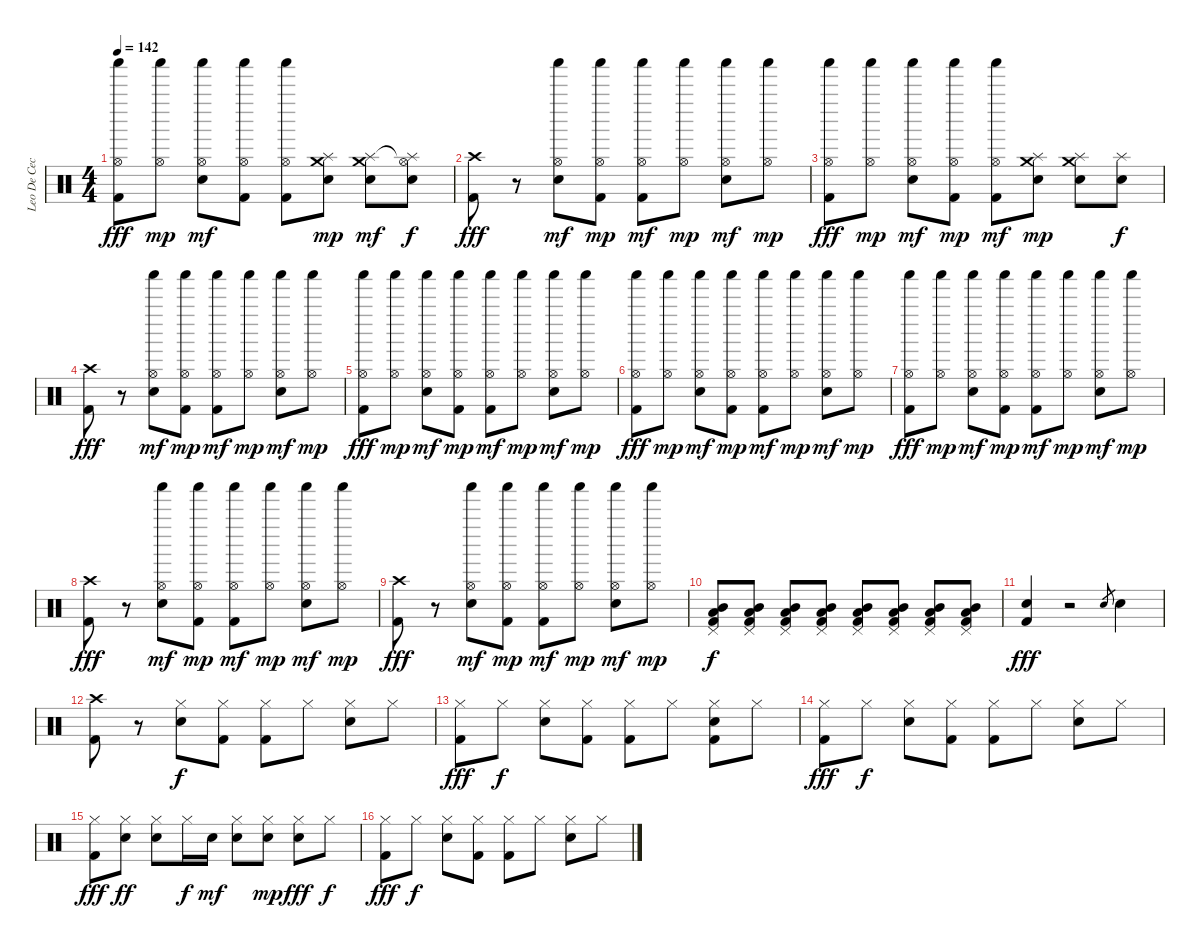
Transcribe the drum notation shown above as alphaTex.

\track ("Leo De Cecco" "Leo De Cec") {instrument percussion}
\staff {score}
\articulation defaults
\ts (4 4)
\tempo 142
\clef neutral
\ks c
("Shaker (hit)" "Hi-Hat (open)" "Kick (hit) 2").8{dy fff} ("Shaker (hit)" "Hi-Hat (open)").8{dy mp} ("Shaker (hit)" "Hi-Hat (open)" "Electric Snare (hit)").8{dy mf} ("Shaker (hit)" "Hi-Hat (open)" "Kick (hit) 2").8 ("Shaker (hit)" "Hi-Hat (open)" "Kick (hit) 2").8 ("Crash medium (hit)" "Splash (hit)" "Electric Snare (hit)").8{dy mp} ("Crash medium (hit)" "Splash (hit)" "Electric Snare (hit)").8{dy mf} ("Splash (hit)" "Hi-Hat (open)"{t} "Electric Snare (hit)").8{dy f} |
("Crash high (hit)" "Kick (hit) 2").8{dy fff} r.8 ("Shaker (hit)" "Hi-Hat (open)" "Electric Snare (hit)").8{dy mf} ("Shaker (hit)" "Hi-Hat (open)" "Kick (hit) 2").8{dy mp} ("Shaker (hit)" "Hi-Hat (open)" "Kick (hit) 2").8{dy mf} ("Shaker (hit)" "Hi-Hat (open)").8{dy mp} ("Shaker (hit)" "Hi-Hat (open)" "Electric Snare (hit)").8{dy mf} ("Shaker (hit)" "Hi-Hat (open)").8{dy mp} |
("Shaker (hit)" "Hi-Hat (open)" "Kick (hit) 2").8{dy fff} ("Shaker (hit)" "Hi-Hat (open)").8{dy mp} ("Shaker (hit)" "Hi-Hat (open)" "Electric Snare (hit)").8{dy mf} ("Shaker (hit)" "Hi-Hat (open)" "Kick (hit) 2").8{dy mp} ("Shaker (hit)" "Hi-Hat (open)" "Kick (hit) 2").8{dy mf} ("Crash medium (hit)" "Splash (hit)" "Electric Snare (hit)").8{dy mp} ("Crash medium (hit)" "Splash (hit)" "Electric Snare (hit)").8 ("Splash (hit)" "Electric Snare (hit)").8{dy f} |
("Crash high (hit)" "Kick (hit) 2").8{dy fff} r.8 ("Shaker (hit)" "Hi-Hat (open)" "Electric Snare (hit)").8{dy mf} ("Shaker (hit)" "Hi-Hat (open)" "Kick (hit) 2").8{dy mp} ("Shaker (hit)" "Hi-Hat (open)" "Kick (hit) 2").8{dy mf} ("Shaker (hit)" "Hi-Hat (open)").8{dy mp} ("Shaker (hit)" "Hi-Hat (open)" "Electric Snare (hit)").8{dy mf} ("Shaker (hit)" "Hi-Hat (open)").8{dy mp} |
("Shaker (hit)" "Hi-Hat (open)" "Kick (hit) 2").8{dy fff} ("Shaker (hit)" "Hi-Hat (open)").8{dy mp} ("Shaker (hit)" "Hi-Hat (open)" "Electric Snare (hit)").8{dy mf} ("Shaker (hit)" "Hi-Hat (open)" "Kick (hit) 2").8{dy mp} ("Shaker (hit)" "Hi-Hat (open)" "Kick (hit) 2").8{dy mf} ("Shaker (hit)" "Hi-Hat (open)").8{dy mp} ("Shaker (hit)" "Hi-Hat (open)" "Electric Snare (hit)").8{dy mf} ("Shaker (hit)" "Hi-Hat (open)").8{dy mp} |
("Shaker (hit)" "Hi-Hat (open)" "Kick (hit) 2").8{dy fff} ("Shaker (hit)" "Hi-Hat (open)").8{dy mp} ("Shaker (hit)" "Hi-Hat (open)" "Electric Snare (hit)").8{dy mf} ("Shaker (hit)" "Hi-Hat (open)" "Kick (hit) 2").8{dy mp} ("Shaker (hit)" "Hi-Hat (open)" "Kick (hit) 2").8{dy mf} ("Shaker (hit)" "Hi-Hat (open)").8{dy mp} ("Shaker (hit)" "Hi-Hat (open)" "Electric Snare (hit)").8{dy mf} ("Shaker (hit)" "Hi-Hat (open)").8{dy mp} |
("Shaker (hit)" "Hi-Hat (open)" "Kick (hit) 2").8{dy fff} ("Shaker (hit)" "Hi-Hat (open)").8{dy mp} ("Shaker (hit)" "Hi-Hat (open)" "Electric Snare (hit)").8{dy mf} ("Shaker (hit)" "Hi-Hat (open)" "Kick (hit) 2").8{dy mp} ("Shaker (hit)" "Hi-Hat (open)" "Kick (hit) 2").8{dy mf} ("Shaker (hit)" "Hi-Hat (open)").8{dy mp} ("Shaker (hit)" "Hi-Hat (open)" "Electric Snare (hit)").8{dy mf} ("Shaker (hit)" "Hi-Hat (open)").8{dy mp} |
("Crash high (hit)" "Kick (hit) 2").8{dy fff} r.8 ("Shaker (hit)" "Hi-Hat (open)" "Electric Snare (hit)").8{dy mf} ("Shaker (hit)" "Hi-Hat (open)" "Kick (hit) 2").8{dy mp} ("Shaker (hit)" "Hi-Hat (open)" "Kick (hit) 2").8{dy mf} ("Shaker (hit)" "Hi-Hat (open)").8{dy mp} ("Shaker (hit)" "Hi-Hat (open)" "Electric Snare (hit)").8{dy mf} ("Shaker (hit)" "Hi-Hat (open)").8{dy mp} |
("Crash high (hit)" "Kick (hit) 2").8{dy fff} r.8 ("Shaker (hit)" "Hi-Hat (open)" "Electric Snare (hit)").8{dy mf} ("Shaker (hit)" "Hi-Hat (open)" "Kick (hit) 2").8{dy mp} ("Shaker (hit)" "Hi-Hat (open)" "Kick (hit) 2").8{dy mf} ("Shaker (hit)" "Hi-Hat (open)").8{dy mp} ("Shaker (hit)" "Hi-Hat (open)" "Electric Snare (hit)").8{dy mf} ("Shaker (hit)" "Hi-Hat (open)").8{dy mp} |
("Low Tom (hit)" "Mid Tom (hit)" "Pedal Hi-Hat (hit)" "Kick (hit) 2").8{dy f} ("Low Tom (hit)" "Mid Tom (hit)" "Pedal Hi-Hat (hit)" "Kick (hit) 2").8 ("Low Tom (hit)" "Mid Tom (hit)" "Pedal Hi-Hat (hit)" "Kick (hit) 2").8 ("Low Tom (hit)" "Mid Tom (hit)" "Pedal Hi-Hat (hit)" "Kick (hit) 2").8 ("Low Tom (hit)" "Mid Tom (hit)" "Pedal Hi-Hat (hit)" "Kick (hit) 2").8 ("Low Tom (hit)" "Mid Tom (hit)" "Pedal Hi-Hat (hit)" "Kick (hit) 2").8 ("Low Tom (hit)" "Mid Tom (hit)" "Pedal Hi-Hat (hit)" "Kick (hit) 2").8 ("Low Tom (hit)" "Mid Tom (hit)" "Pedal Hi-Hat (hit)" "Kick (hit) 2").8 |
("Electric Snare (hit)" "Kick (hit) 2").4{dy fff} r.2 "Electric Snare (hit)".8{gr} "Electric Snare (hit)".4 |
("Crash high (hit)" "Kick (hit) 2").8 r.8 ("Hi-Hat (closed)" "Electric Snare (hit)").8{dy f} ("Hi-Hat (closed)" "Kick (hit) 2").8 ("Hi-Hat (closed)" "Kick (hit) 2").8 "Hi-Hat (closed)".8 ("Hi-Hat (closed)" "Electric Snare (hit)").8 "Hi-Hat (closed)".8 |
("Hi-Hat (closed)" "Kick (hit) 2").8{dy fff} "Hi-Hat (closed)".8{dy f} ("Hi-Hat (closed)" "Electric Snare (hit)").8 ("Hi-Hat (closed)" "Kick (hit) 2").8 ("Hi-Hat (closed)" "Kick (hit) 2").8 "Hi-Hat (closed)".8 ("Hi-Hat (closed)" "Electric Snare (hit)" "Kick (hit) 2").8 "Hi-Hat (closed)".8 |
("Hi-Hat (closed)" "Kick (hit) 2").8{dy fff} "Hi-Hat (closed)".8{dy f} ("Hi-Hat (closed)" "Electric Snare (hit)").8 ("Hi-Hat (closed)" "Kick (hit) 2").8 ("Hi-Hat (closed)" "Kick (hit) 2").8 "Hi-Hat (closed)".8 ("Hi-Hat (closed)" "Electric Snare (hit)").8 "Hi-Hat (closed)".8 |
("Hi-Hat (closed)" "Kick (hit) 2").8{dy fff} ("Hi-Hat (closed)" "Electric Snare (hit)").8{dy ff} ("Hi-Hat (closed)" "Electric Snare (hit)").8 "Hi-Hat (closed)".16{dy f} "Electric Snare (hit)".16{dy mf} ("Hi-Hat (closed)" "Electric Snare (hit)").8 ("Hi-Hat (closed)" "Electric Snare (hit)").8{dy mp} ("Hi-Hat (closed)" "Electric Snare (hit)").8{dy fff} "Hi-Hat (closed)".8{dy f} |
("Hi-Hat (closed)" "Kick (hit) 2").8{dy fff} "Hi-Hat (closed)".8{dy f} ("Hi-Hat (closed)" "Electric Snare (hit)").8 ("Hi-Hat (closed)" "Kick (hit) 2").8 ("Hi-Hat (closed)" "Kick (hit) 2").8 "Hi-Hat (closed)".8 ("Hi-Hat (closed)" "Electric Snare (hit)").8 "Hi-Hat (closed)".8
